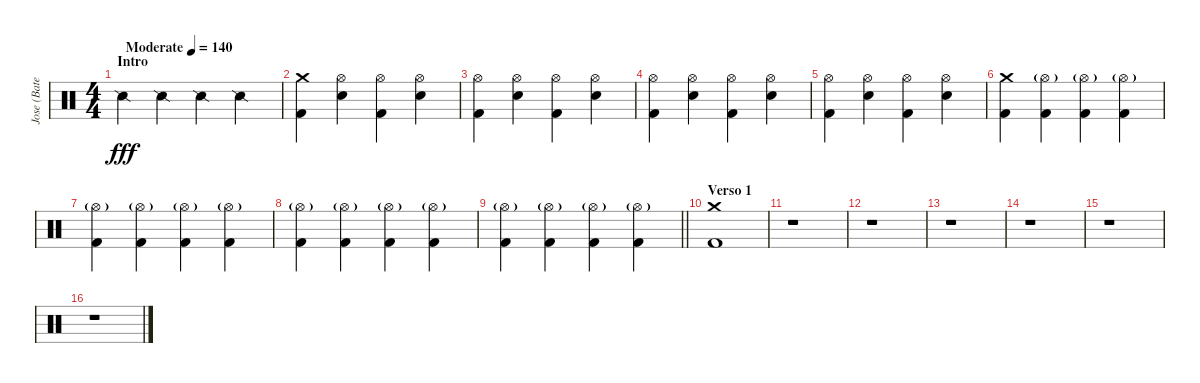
\track ("Jose (Bateria)" "Jose (Bate") {instrument percussion}
\staff {score}
\articulation defaults
\ts (4 4)
\section ("" "Intro")
\tempo (140 "Moderate")
\clef neutral
\ks aminor "Snare (side stick) 2".4{dy fff} "Snare (side stick) 2".4 "Snare (side stick) 2".4 "Snare (side stick) 2".4
|
("Crash medium (hit)" "Kick (hit) 2").4 ("Hi-Hat (open)" "Snare (hit) 2").4 ("Hi-Hat (open)" "Kick (hit) 2").4 ("Hi-Hat (open)" "Snare (hit) 2").4 |
("Hi-Hat (open)" "Kick (hit) 2").4 ("Hi-Hat (open)" "Snare (hit) 2").4 ("Hi-Hat (open)" "Kick (hit) 2").4 ("Hi-Hat (open)" "Snare (hit) 2").4 |
("Hi-Hat (open)" "Kick (hit) 2").4 ("Hi-Hat (open)" "Snare (hit) 2").4 ("Hi-Hat (open)" "Kick (hit) 2").4 ("Hi-Hat (open)" "Snare (hit) 2").4 |
("Hi-Hat (open)" "Kick (hit) 2").4 ("Hi-Hat (open)" "Snare (hit) 2").4 ("Hi-Hat (open)" "Kick (hit) 2").4 ("Hi-Hat (open)" "Snare (hit) 2").4 |
("Crash medium (hit)" "Kick (hit) 2").4 ("Hi-Hat (open)"{g} "Kick (hit) 2").4 ("Hi-Hat (open)"{g} "Kick (hit) 2").4 ("Hi-Hat (open)"{g} "Kick (hit) 2").4 |
("Hi-Hat (open)"{g} "Kick (hit) 2").4 ("Hi-Hat (open)"{g} "Kick (hit) 2").4 ("Hi-Hat (open)"{g} "Kick (hit) 2").4 ("Hi-Hat (open)"{g} "Kick (hit) 2").4 |
("Hi-Hat (open)"{g} "Kick (hit) 2").4 ("Hi-Hat (open)"{g} "Kick (hit) 2").4 ("Hi-Hat (open)"{g} "Kick (hit) 2").4 ("Hi-Hat (open)"{g} "Kick (hit) 2").4 |
\barLineRight lightlight
("Hi-Hat (open)"{g} "Kick (hit) 2").4 ("Hi-Hat (open)"{g} "Kick (hit) 2").4 ("Hi-Hat (open)"{g} "Kick (hit) 2").4 ("Hi-Hat (open)"{g} "Kick (hit) 2").4 |
\section ("" "Verso 1")
("Crash medium (hit)" "Kick (hit) 2").1 |
r.1 |
r.1 |
r.1 |
r.1 |
r.1 |
r.1
